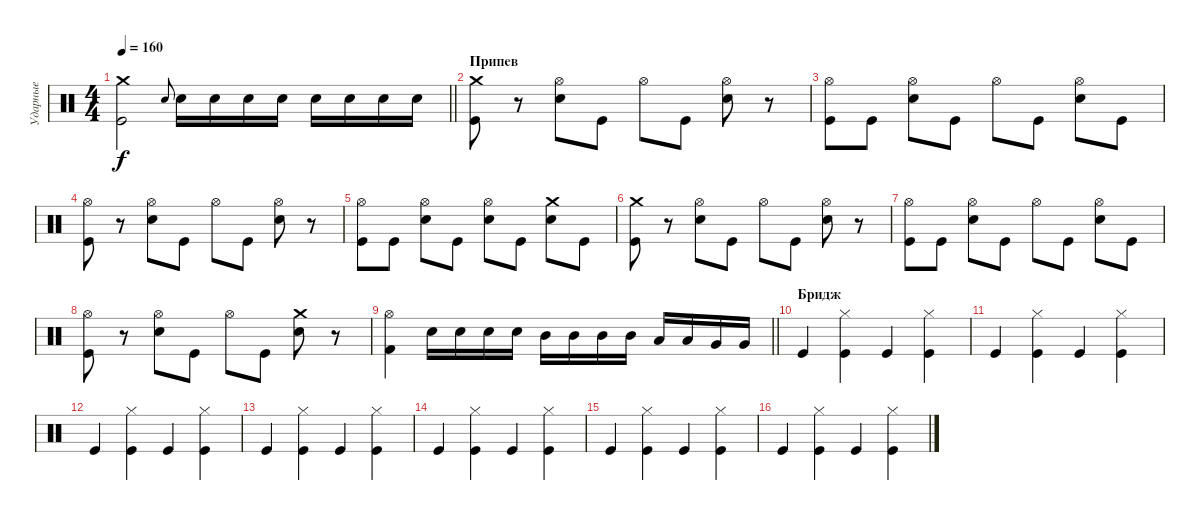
\track ("Ударные" "Ударные") {instrument percussion}
\staff {score}
\articulation defaults
\ts (4 4)
\tempo 160
\clef neutral
\barLineRight lightlight
\ks c
("Kick (hit)" "Crash medium (hit)").2{dy f} "Electric Snare (hit)".8{gr onbeat} "Electric Snare (hit)".16 "Electric Snare (hit)".16 "Electric Snare (hit)".16 "Electric Snare (hit)".16 "Electric Snare (hit)".16 "Electric Snare (hit)".16 "Electric Snare (hit)".16 "Electric Snare (hit)".16 |
\section ("" "Припев")
("Kick (hit)" "Crash medium (hit)").8 r.8 ("Electric Snare (hit)" "Hi-Hat (open)").8 "Kick (hit)".8 "Hi-Hat (open)".8 "Kick (hit)".8 ("Electric Snare (hit)" "Hi-Hat (open)").8 r.8 |
("Kick (hit)" "Hi-Hat (open)").8 "Kick (hit)".8 ("Electric Snare (hit)" "Hi-Hat (open)").8 "Kick (hit)".8 "Hi-Hat (open)".8 "Kick (hit)".8 ("Electric Snare (hit)" "Hi-Hat (open)").8 "Kick (hit)".8 |
("Kick (hit)" "Hi-Hat (open)").8 r.8 ("Electric Snare (hit)" "Hi-Hat (open)").8 "Kick (hit)".8 "Hi-Hat (open)".8 "Kick (hit)".8 ("Electric Snare (hit)" "Hi-Hat (open)").8 r.8 |
("Kick (hit)" "Hi-Hat (open)").8 "Kick (hit)".8 ("Electric Snare (hit)" "Hi-Hat (open)").8 "Kick (hit)".8 ("Electric Snare (hit)" "Hi-Hat (open)").8 "Kick (hit)".8 ("Electric Snare (hit)" "Crash medium (hit)").8 "Kick (hit)".8 |
("Kick (hit)" "Crash medium (hit)").8 r.8 ("Electric Snare (hit)" "Hi-Hat (open)").8 "Kick (hit)".8 "Hi-Hat (open)".8 "Kick (hit)".8 ("Electric Snare (hit)" "Hi-Hat (open)").8 r.8 |
("Kick (hit)" "Hi-Hat (open)").8 "Kick (hit)".8 ("Electric Snare (hit)" "Hi-Hat (open)").8 "Kick (hit)".8 "Hi-Hat (open)".8 "Kick (hit)".8 ("Electric Snare (hit)" "Hi-Hat (open)").8 "Kick (hit)".8 |
("Kick (hit)" "Hi-Hat (open)").8 r.8 ("Electric Snare (hit)" "Hi-Hat (open)").8 "Kick (hit)".8 "Hi-Hat (open)".8 "Kick (hit)".8 ("Electric Snare (hit)" "Crash medium (hit)").8 r.8 |
\barLineRight lightlight
("Kick (hit) 2" "Hi-Hat (open)").4 "Electric Snare (hit)".16 "Electric Snare (hit)".16 "Electric Snare (hit)".16 "Electric Snare (hit)".16 "Mid Tom (hit)".16 "Mid Tom (hit)".16 "Mid Tom (hit)".16 "Mid Tom (hit)".16 "Low Tom (hit)".16 "Low Tom (hit)".16 "Very Low Tom (hit)".16 "Very Low Tom (hit)".16 |
\section ("" "Бридж")
"Kick (hit)".4 ("Kick (hit)" "Hi-Hat (closed)").4 "Kick (hit)".4 ("Kick (hit)" "Hi-Hat (closed)").4 |
"Kick (hit)".4 ("Kick (hit)" "Hi-Hat (closed)").4 "Kick (hit)".4 ("Kick (hit)" "Hi-Hat (closed)").4 |
"Kick (hit)".4 ("Kick (hit)" "Hi-Hat (closed)").4 "Kick (hit)".4 ("Kick (hit)" "Hi-Hat (closed)").4 |
"Kick (hit)".4 ("Kick (hit)" "Hi-Hat (closed)").4 "Kick (hit)".4 ("Kick (hit)" "Hi-Hat (closed)").4 |
"Kick (hit)".4 ("Kick (hit)" "Hi-Hat (closed)").4 "Kick (hit)".4 ("Kick (hit)" "Hi-Hat (closed)").4 |
"Kick (hit)".4 ("Kick (hit)" "Hi-Hat (closed)").4 "Kick (hit)".4 ("Kick (hit)" "Hi-Hat (closed)").4 |
"Kick (hit)".4 ("Kick (hit)" "Hi-Hat (closed)").4 "Kick (hit)".4 ("Kick (hit)" "Hi-Hat (closed)").4
